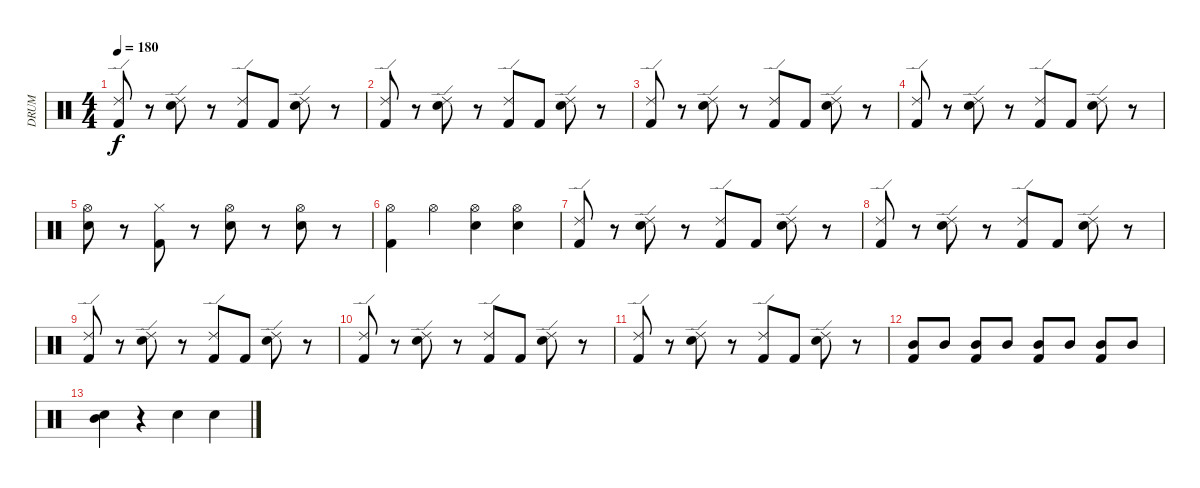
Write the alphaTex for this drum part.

\track ("DRUM" "DRUM") {instrument percussion}
\staff {score}
\articulation defaults
\ts (4 4)
\tempo 180
\clef neutral
\ks c
("Ride (edge) 2" "Kick (hit) 2").8{dy f} r.8 ("Ride (edge) 2" "Snare (hit) 2").8 r.8 ("Ride (edge) 2" "Kick (hit) 2").8 "Kick (hit) 2".8 ("Ride (edge) 2" "Snare (hit) 2").8 r.8 |
("Ride (edge) 2" "Kick (hit) 2").8 r.8 ("Ride (edge) 2" "Snare (hit) 2").8 r.8 ("Ride (edge) 2" "Kick (hit) 2").8 "Kick (hit) 2".8 ("Ride (edge) 2" "Snare (hit) 2").8 r.8 |
("Ride (edge) 2" "Kick (hit) 2").8 r.8 ("Ride (edge) 2" "Snare (hit) 2").8 r.8 ("Ride (edge) 2" "Kick (hit) 2").8 "Kick (hit) 2".8 ("Ride (edge) 2" "Snare (hit) 2").8 r.8 |
("Ride (edge) 2" "Kick (hit) 2").8 r.8 ("Ride (edge) 2" "Snare (hit) 2").8 r.8 ("Ride (edge) 2" "Kick (hit) 2").8 "Kick (hit) 2".8 ("Ride (edge) 2" "Snare (hit) 2").8 r.8 |
("Hi-Hat (open)" "Snare (hit) 2").8 r.8 ("Hi-Hat (closed)" "Kick (hit) 2").8 r.8 ("Hi-Hat (open)" "Snare (hit) 2").8 r.8 ("Hi-Hat (open)" "Snare (hit) 2").8 r.8 |
("Hi-Hat (open)" "Kick (hit) 2").4 "Hi-Hat (open)".4 ("Hi-Hat (open)" "Snare (hit) 2").4 ("Hi-Hat (open)" "Snare (hit) 2").4 |
("Ride (edge) 2" "Kick (hit) 2").8 r.8 ("Ride (edge) 2" "Snare (hit) 2").8 r.8 ("Ride (edge) 2" "Kick (hit) 2").8 "Kick (hit) 2".8 ("Ride (edge) 2" "Snare (hit) 2").8 r.8 |
("Ride (edge) 2" "Kick (hit) 2").8 r.8 ("Ride (edge) 2" "Snare (hit) 2").8 r.8 ("Ride (edge) 2" "Kick (hit) 2").8 "Kick (hit) 2".8 ("Ride (edge) 2" "Snare (hit) 2").8 r.8 |
("Ride (edge) 2" "Kick (hit) 2").8 r.8 ("Ride (edge) 2" "Snare (hit) 2").8 r.8 ("Ride (edge) 2" "Kick (hit) 2").8 "Kick (hit) 2".8 ("Ride (edge) 2" "Snare (hit) 2").8 r.8 |
("Ride (edge) 2" "Kick (hit) 2").8 r.8 ("Ride (edge) 2" "Snare (hit) 2").8 r.8 ("Ride (edge) 2" "Kick (hit) 2").8 "Kick (hit) 2".8 ("Ride (edge) 2" "Snare (hit) 2").8 r.8 |
("Ride (edge) 2" "Kick (hit) 2").8 r.8 ("Ride (edge) 2" "Snare (hit) 2").8 r.8 ("Ride (edge) 2" "Kick (hit) 2").8 "Kick (hit) 2".8 ("Ride (edge) 2" "Snare (hit) 2").8 r.8 |
("Mid Tom (hit)" "Kick (hit) 2").8 "Mid Tom (hit)".8 ("Mid Tom (hit)" "Kick (hit) 2").8 "Mid Tom (hit)".8 ("Mid Tom (hit)" "Kick (hit) 2").8 "Mid Tom (hit)".8 ("Mid Tom (hit)" "Kick (hit) 2").8 "Mid Tom (hit)".8 |
("Mid Tom (hit)" "Snare (hit) 2").4 r.4 "Snare (hit) 2".4 "Snare (hit) 2".4
